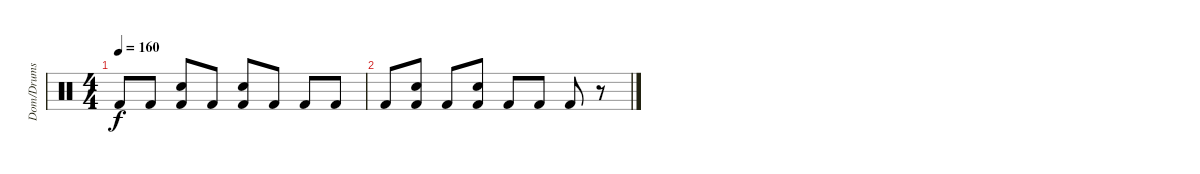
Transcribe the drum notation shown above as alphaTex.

\track ("Dom/Drums" "Dom/Drums") {instrument percussion}
\staff {score}
\articulation defaults
\ts (4 4)
\tempo 160
\clef neutral
\ks c "Kick (hit) 2".8{dy f} "Kick (hit) 2".8
("Electric Snare (hit)" "Kick (hit) 2").8 "Kick (hit) 2".8 ("Electric Snare (hit)" "Kick (hit) 2").8 "Kick (hit) 2".8 "Kick (hit) 2".8 "Kick (hit) 2".8 |
"Kick (hit) 2".8 ("Electric Snare (hit)" "Kick (hit) 2").8 "Kick (hit) 2".8 ("Electric Snare (hit)" "Kick (hit) 2").8 "Kick (hit) 2".8 "Kick (hit) 2".8 "Kick (hit) 2".8 r.8
